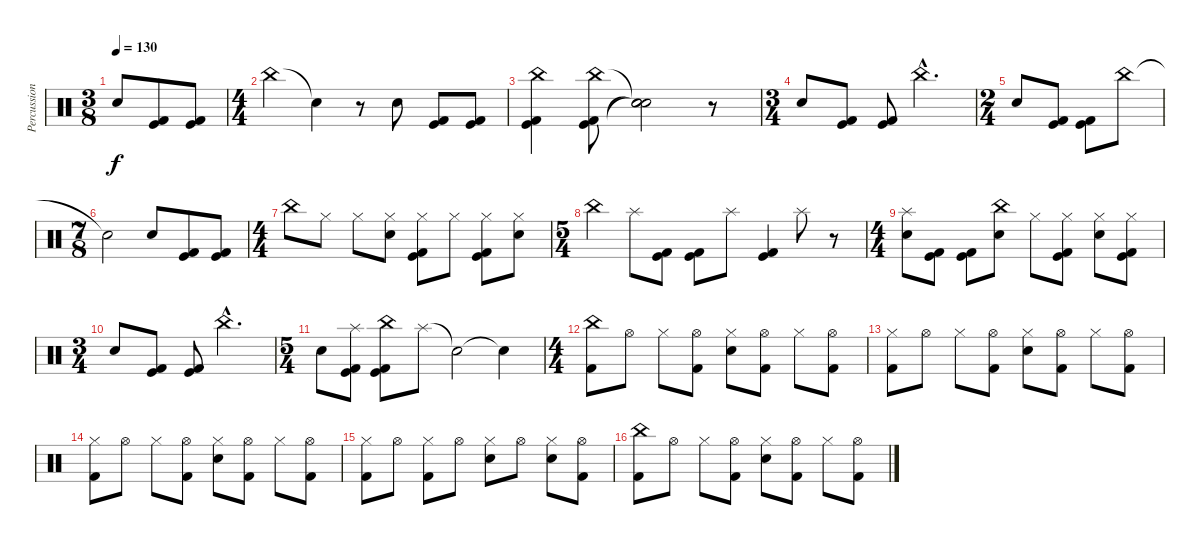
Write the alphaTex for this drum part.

\track ("Percussion" "Percussion") {instrument percussion}
\staff {score}
\articulation defaults
\ts (3 8)
\tempo 130
\clef neutral
\ks c "Snare (hit) 2".8{dy f}
("Kick (hit)" "Kick (hit) 2").8 ("Kick (hit)" "Kick (hit) 2").8 |
\ts (4 4)
"China (hit)".4 "Snare (hit)"{t}.4 r.8 "Snare (hit) 2".8 ("Kick (hit)" "Kick (hit) 2").8 ("Kick (hit)" "Kick (hit) 2").8 |
("China (hit)" "Kick (hit)" "Kick (hit) 2").4 ("China (hit)" "Kick (hit)" "Kick (hit) 2").8 ("Snare (hit)"{t} "Snare (hit)"{t} "Snare (hit)"{t}).2 r.8 |
\ts (3 4)
"Snare (hit) 2".8 ("Kick (hit)" "Kick (hit) 2").8 ("Kick (hit)" "Kick (hit) 2").8 "China (hit)"{hac}.4{d} |
\ts (2 4)
"Snare (hit) 2".8 ("Kick (hit)" "Kick (hit) 2").8 ("Kick (hit)" "Kick (hit) 2").8 "China (hit)".8 |
\ts (7 8)
"Snare (hit)"{t}.2 "Snare (hit) 2".8 ("Kick (hit)" "Kick (hit) 2").8 ("Kick (hit)" "Kick (hit) 2").8 |
\ts (4 4)
"China (hit)".8 "Hi-Hat (closed)".8 "Hi-Hat (closed)".8 ("Hi-Hat (closed)" "Snare (hit) 2").8 ("Hi-Hat (closed)" "Kick (hit)" "Kick (hit) 2").8 "Hi-Hat (closed)".8 ("Hi-Hat (closed)" "Kick (hit)" "Kick (hit) 2").8 ("Hi-Hat (closed)" "Snare (hit) 2").8 |
\ts (5 4)
"China (hit)".4 "Splash (hit)".8 ("Kick (hit)" "Kick (hit) 2").8 ("Kick (hit)" "Kick (hit) 2").8 "Splash (hit)".8 ("Kick (hit)" "Kick (hit) 2").4 "Splash (hit)".8 r.8 |
\ts (4 4)
("Splash (hit)" "Snare (hit) 2").8 ("Kick (hit)" "Kick (hit) 2").8 ("Kick (hit)" "Kick (hit) 2").8 ("China (hit)" "Snare (hit) 2").8 "Hi-Hat (closed)".8 ("Hi-Hat (closed)" "Kick (hit)" "Kick (hit) 2").8 ("Hi-Hat (closed)" "Snare (hit) 2").8 ("Hi-Hat (closed)" "Kick (hit)" "Kick (hit) 2").8 |
\ts (3 4)
"Snare (hit) 2".8 ("Kick (hit)" "Kick (hit) 2").8 ("Kick (hit)" "Kick (hit) 2").8 "China (hit)"{hac}.4{d} |
\ts (5 4)
"Snare (hit) 2".8 ("Splash (hit)" "Kick (hit)" "Kick (hit) 2").8 ("China (hit)" "Kick (hit)" "Kick (hit) 2").8 "Splash (hit)".8 "Snare (hit)"{t}.2 "Snare (hit)"{t}.4 |
\ts (4 4)
("China (hit)" "Kick (hit) 2").8 "Hi-Hat (open)".8 "Hi-Hat (closed)".8 ("Hi-Hat (open)" "Kick (hit) 2").8 ("Hi-Hat (closed)" "Snare (hit) 2").8 ("Hi-Hat (open)" "Kick (hit) 2").8 "Hi-Hat (closed)".8 ("Hi-Hat (open)" "Kick (hit) 2").8 |
("Hi-Hat (closed)" "Kick (hit) 2").8 "Hi-Hat (open)".8 "Hi-Hat (closed)".8 ("Hi-Hat (open)" "Kick (hit) 2").8 ("Hi-Hat (closed)" "Snare (hit) 2").8 ("Hi-Hat (open)" "Kick (hit) 2").8 "Hi-Hat (closed)".8 ("Hi-Hat (open)" "Kick (hit) 2").8 |
("Hi-Hat (closed)" "Kick (hit) 2").8 "Hi-Hat (open)".8 "Hi-Hat (closed)".8 ("Hi-Hat (open)" "Kick (hit) 2").8 ("Hi-Hat (closed)" "Snare (hit) 2").8 ("Hi-Hat (open)" "Kick (hit) 2").8 "Hi-Hat (closed)".8 ("Hi-Hat (open)" "Kick (hit) 2").8 |
("Hi-Hat (closed)" "Kick (hit) 2").8 "Hi-Hat (open)".8 ("Hi-Hat (closed)" "Kick (hit) 2").8 "Hi-Hat (open)".8 ("Hi-Hat (closed)" "Snare (hit) 2").8 "Hi-Hat (open)".8 ("Hi-Hat (closed)" "Snare (hit) 2").8 ("Hi-Hat (open)" "Kick (hit) 2").8 |
("China (hit)" "Kick (hit) 2").8 "Hi-Hat (open)".8 "Hi-Hat (closed)".8 ("Hi-Hat (open)" "Kick (hit) 2").8 ("Hi-Hat (closed)" "Snare (hit) 2").8 ("Hi-Hat (open)" "Kick (hit) 2").8 "Hi-Hat (closed)".8 ("Hi-Hat (open)" "Kick (hit) 2").8
